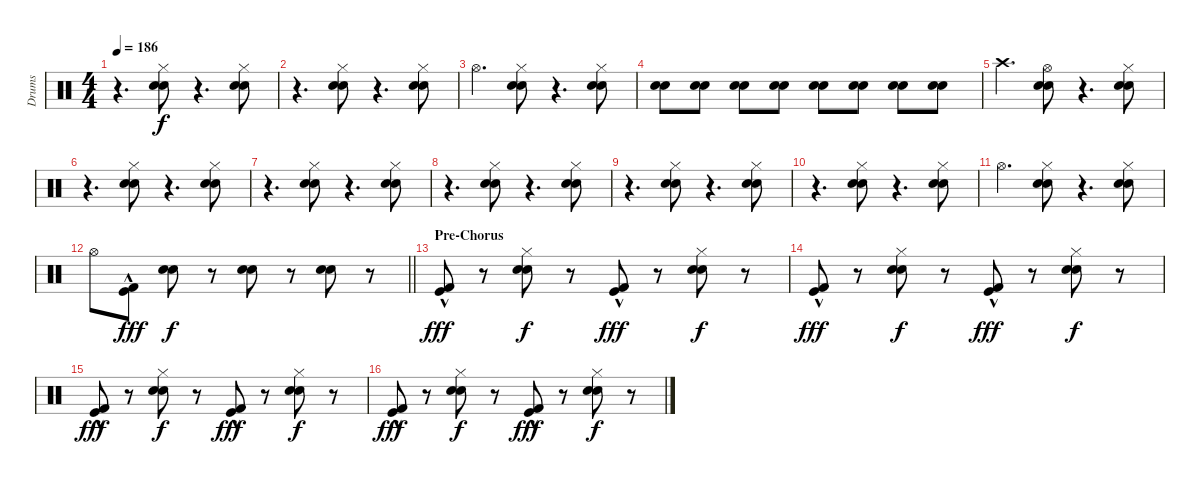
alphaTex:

\track ("Drums" "Drums") {instrument percussion}
\staff {score}
\articulation defaults
\ts (4 4)
\tempo 186
\clef neutral
\ks c
r.4{d dy f} ("Hi-Hat (closed)" "Snare (hit) 2" "Snare (hit) 2").8 r.4{d} ("Hi-Hat (closed)" "Snare (hit) 2" "Snare (hit) 2").8 |
r.4{d} ("Hi-Hat (closed)" "Snare (hit) 2" "Snare (hit) 2").8 r.4{d} ("Hi-Hat (closed)" "Snare (hit) 2" "Snare (hit) 2").8 |
"Hi-Hat (open)".4{d} ("Hi-Hat (closed)" "Snare (hit) 2" "Snare (hit) 2").8 r.4{d} ("Hi-Hat (closed)" "Snare (hit) 2" "Snare (hit) 2").8 |
("Snare (hit) 2" "Snare (hit) 2").8 ("Snare (hit) 2" "Snare (hit) 2").8 ("Snare (hit) 2" "Snare (hit) 2").8 ("Snare (hit) 2" "Snare (hit) 2").8 ("Snare (hit) 2" "Snare (hit) 2").8 ("Snare (hit) 2" "Snare (hit) 2").8 ("Snare (hit) 2" "Snare (hit) 2").8 ("Snare (hit) 2" "Snare (hit) 2").8 |
"Crash high (hit)".4{d} ("Hi-Hat (open)" "Snare (hit) 2" "Snare (hit) 2").8 r.4{d} ("Hi-Hat (closed)" "Snare (hit) 2" "Snare (hit) 2").8 |
r.4{d} ("Hi-Hat (closed)" "Snare (hit) 2" "Snare (hit) 2").8 r.4{d} ("Hi-Hat (closed)" "Snare (hit) 2" "Snare (hit) 2").8 |
r.4{d} ("Hi-Hat (closed)" "Snare (hit) 2" "Snare (hit) 2").8 r.4{d} ("Hi-Hat (closed)" "Snare (hit) 2" "Snare (hit) 2").8 |
r.4{d} ("Hi-Hat (closed)" "Snare (hit) 2" "Snare (hit) 2").8 r.4{d} ("Hi-Hat (closed)" "Snare (hit) 2" "Snare (hit) 2").8 |
r.4{d} ("Hi-Hat (closed)" "Snare (hit) 2" "Snare (hit) 2").8 r.4{d} ("Hi-Hat (closed)" "Snare (hit) 2" "Snare (hit) 2").8 |
r.4{d} ("Hi-Hat (closed)" "Snare (hit) 2" "Snare (hit) 2").8 r.4{d} ("Hi-Hat (closed)" "Snare (hit) 2" "Snare (hit) 2").8 |
"Hi-Hat (open)".4{d} ("Hi-Hat (closed)" "Snare (hit) 2" "Snare (hit) 2").8 r.4{d} ("Hi-Hat (closed)" "Snare (hit) 2" "Snare (hit) 2").8 |
\barLineRight lightlight "Hi-Hat (open)".8
("Kick (hit)"{hac} "Kick (hit) 2"{hac}).8{dy fff} ("Snare (hit) 2" "Snare (hit) 2").8{dy f} r.8 ("Snare (hit) 2" "Snare (hit) 2").8 r.8 ("Snare (hit) 2" "Snare (hit) 2").8 r.8 |
\section ("" "Pre-Chorus")
("Kick (hit)"{hac} "Kick (hit) 2"{hac}).8{dy fff} r.8 ("Hi-Hat (closed)" "Snare (hit) 2" "Snare (hit) 2").8{dy f} r.8 ("Kick (hit)"{hac} "Kick (hit) 2"{hac}).8{dy fff} r.8 ("Hi-Hat (closed)" "Snare (hit) 2" "Snare (hit) 2").8{dy f} r.8 |
("Kick (hit)"{hac} "Kick (hit) 2"{hac}).8{dy fff} r.8 ("Hi-Hat (closed)" "Snare (hit) 2" "Snare (hit) 2").8{dy f} r.8 ("Kick (hit)"{hac} "Kick (hit) 2"{hac}).8{dy fff} r.8 ("Hi-Hat (closed)" "Snare (hit) 2" "Snare (hit) 2").8{dy f} r.8 |
("Kick (hit)"{hac} "Kick (hit) 2"{hac}).8{dy fff} r.8 ("Hi-Hat (closed)" "Snare (hit) 2" "Snare (hit) 2").8{dy f} r.8 ("Kick (hit)"{hac} "Kick (hit) 2"{hac}).8{dy fff} r.8 ("Hi-Hat (closed)" "Snare (hit) 2" "Snare (hit) 2").8{dy f} r.8 |
("Kick (hit)"{hac} "Kick (hit) 2"{hac}).8{dy fff} r.8 ("Hi-Hat (closed)" "Snare (hit) 2" "Snare (hit) 2").8{dy f} r.8 ("Kick (hit)"{hac} "Kick (hit) 2"{hac}).8{dy fff} r.8 ("Hi-Hat (closed)" "Snare (hit) 2" "Snare (hit) 2").8{dy f} r.8
